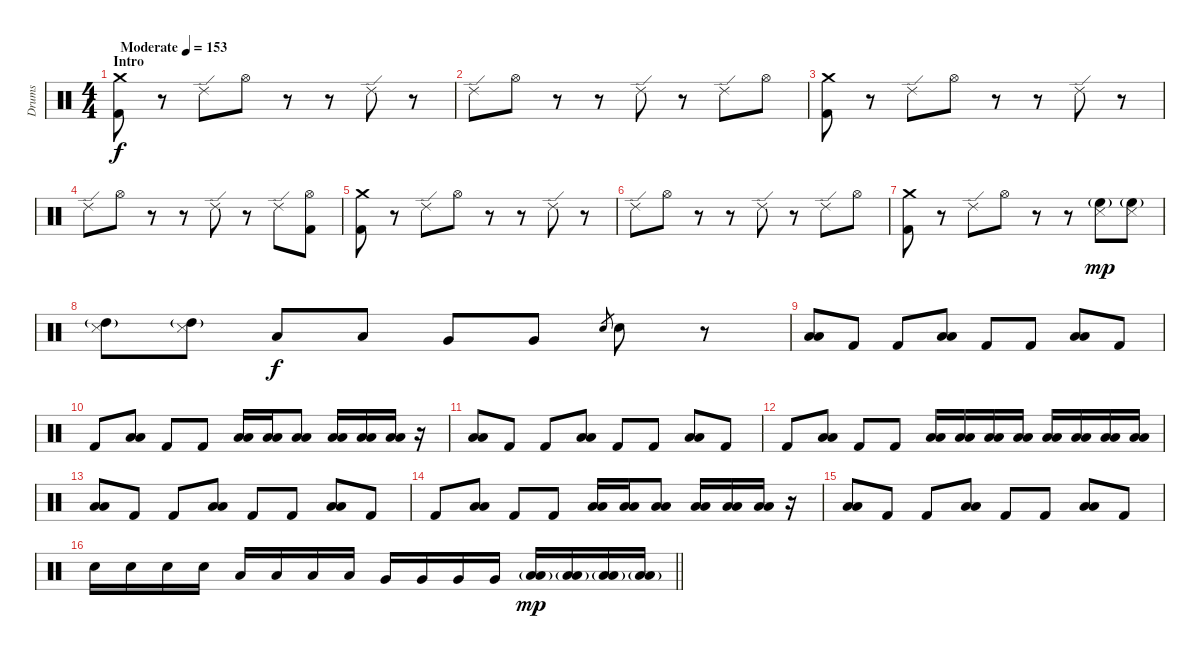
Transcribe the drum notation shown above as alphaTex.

\track ("Drums" "Drums") {instrument percussion}
\staff {score}
\articulation defaults
\ts (4 4)
\section ("" "Intro")
\tempo (153 "Moderate")
\clef neutral
\ks c
("Crash medium (hit)" "Kick (hit) 2").8{dy f} r.8 "Ride (edge) 2".8 "Hi-Hat (open)".8 r.8 r.8 "Ride (edge) 2".8 r.8 |
"Ride (edge) 2".8 "Hi-Hat (open)".8 r.8 r.8 "Ride (edge) 2".8 r.8 "Ride (edge) 2".8 "Hi-Hat (open)".8 |
("Crash medium (hit)" "Kick (hit) 2").8 r.8 "Ride (edge) 2".8 "Hi-Hat (open)".8 r.8 r.8 "Ride (edge) 2".8 r.8 |
"Ride (edge) 2".8 "Hi-Hat (open)".8 r.8 r.8 "Ride (edge) 2".8 r.8 "Ride (edge) 2".8 ("Hi-Hat (open)" "Kick (hit) 2").8 |
("Crash medium (hit)" "Kick (hit) 2").8 r.8 "Ride (edge) 2".8 "Hi-Hat (open)".8 r.8 r.8 "Ride (edge) 2".8 r.8 |
"Ride (edge) 2".8 "Hi-Hat (open)".8 r.8 r.8 "Ride (edge) 2".8 r.8 "Ride (edge) 2".8 "Hi-Hat (open)".8 |
("Crash medium (hit)" "Kick (hit) 2").8 r.8 "Ride (edge) 2".8 "Hi-Hat (open)".8 r.8 r.8 ("Snare (side stick) 3" "High Floor Tom (hit)"{g}).8{dy mp} ("Snare (side stick) 3" "High Floor Tom (hit)"{g}).8 |
("Snare (side stick) 3" "High Tom (hit)"{g}).8 ("Snare (side stick) 3" "High Tom (hit)"{g}).8 "Low Tom (hit)".8{dy f} "Low Tom (hit)".8 "Very Low Tom (hit)".8 "Very Low Tom (hit)".8 "Electric Snare (hit)".8{gr} "Electric Snare (hit)".8 r.8 |
("Low Tom (hit)" "Low Tom (hit)").8{volume 10} "Kick (hit) 2".8 "Kick (hit) 2".8 ("Low Tom (hit)" "Low Tom (hit)").8 "Kick (hit) 2".8 "Kick (hit) 2".8 ("Low Tom (hit)" "Low Tom (hit)").8 "Kick (hit) 2".8 |
"Kick (hit) 2".8 ("Low Tom (hit)" "Low Tom (hit)").8 "Kick (hit) 2".8 "Kick (hit) 2".8 ("Low Tom (hit)" "Low Tom (hit)").16 ("Low Tom (hit)" "Low Tom (hit)").16 ("Low Tom (hit)" "Low Tom (hit)").8 ("Low Tom (hit)" "Low Tom (hit)").16 ("Low Tom (hit)" "Low Tom (hit)").16 ("Low Tom (hit)" "Low Tom (hit)").16 r.16 |
("Low Tom (hit)" "Low Tom (hit)").8 "Kick (hit) 2".8 "Kick (hit) 2".8 ("Low Tom (hit)" "Low Tom (hit)").8 "Kick (hit) 2".8 "Kick (hit) 2".8 ("Low Tom (hit)" "Low Tom (hit)").8 "Kick (hit) 2".8 |
"Kick (hit) 2".8 ("Low Tom (hit)" "Low Tom (hit)").8 "Kick (hit) 2".8 "Kick (hit) 2".8 ("Low Tom (hit)" "Low Tom (hit)").16 ("Low Tom (hit)" "Low Tom (hit)").16 ("Low Tom (hit)" "Low Tom (hit)").16 ("Low Tom (hit)" "Low Tom (hit)").16 ("Low Tom (hit)" "Low Tom (hit)").16 ("Low Tom (hit)" "Low Tom (hit)").16 ("Low Tom (hit)" "Low Tom (hit)").16 ("Low Tom (hit)" "Low Tom (hit)").16 |
("Low Tom (hit)" "Low Tom (hit)").8 "Kick (hit) 2".8 "Kick (hit) 2".8 ("Low Tom (hit)" "Low Tom (hit)").8 "Kick (hit) 2".8 "Kick (hit) 2".8 ("Low Tom (hit)" "Low Tom (hit)").8 "Kick (hit) 2".8 |
"Kick (hit) 2".8 ("Low Tom (hit)" "Low Tom (hit)").8 "Kick (hit) 2".8 "Kick (hit) 2".8 ("Low Tom (hit)" "Low Tom (hit)").16 ("Low Tom (hit)" "Low Tom (hit)").16 ("Low Tom (hit)" "Low Tom (hit)").8 ("Low Tom (hit)" "Low Tom (hit)").16 ("Low Tom (hit)" "Low Tom (hit)").16 ("Low Tom (hit)" "Low Tom (hit)").16 r.16 |
("Low Tom (hit)" "Low Tom (hit)").8 "Kick (hit) 2".8 "Kick (hit) 2".8 ("Low Tom (hit)" "Low Tom (hit)").8 "Kick (hit) 2".8 "Kick (hit) 2".8 ("Low Tom (hit)" "Low Tom (hit)").8 "Kick (hit) 2".8 |
\barLineRight lightlight "Electric Snare (hit)".16 "Electric Snare (hit)".16 "Electric Snare (hit)".16 "Electric Snare (hit)".16 "Low Tom (hit)".16 "Low Tom (hit)".16 "Low Tom (hit)".16 "Low Tom (hit)".16 "Very Low Tom (hit)".16 "Very Low Tom (hit)".16 "Very Low Tom (hit)".16 "Very Low Tom (hit)".16
("Low Floor Tom (hit)"{g} "Low Floor Tom (hit)").16{dy mp} ("Low Floor Tom (hit)"{g} "Low Floor Tom (hit)").16 ("Low Floor Tom (hit)"{g} "Low Floor Tom (hit)").16 ("Low Floor Tom (hit)"{g} "Low Floor Tom (hit)").16
